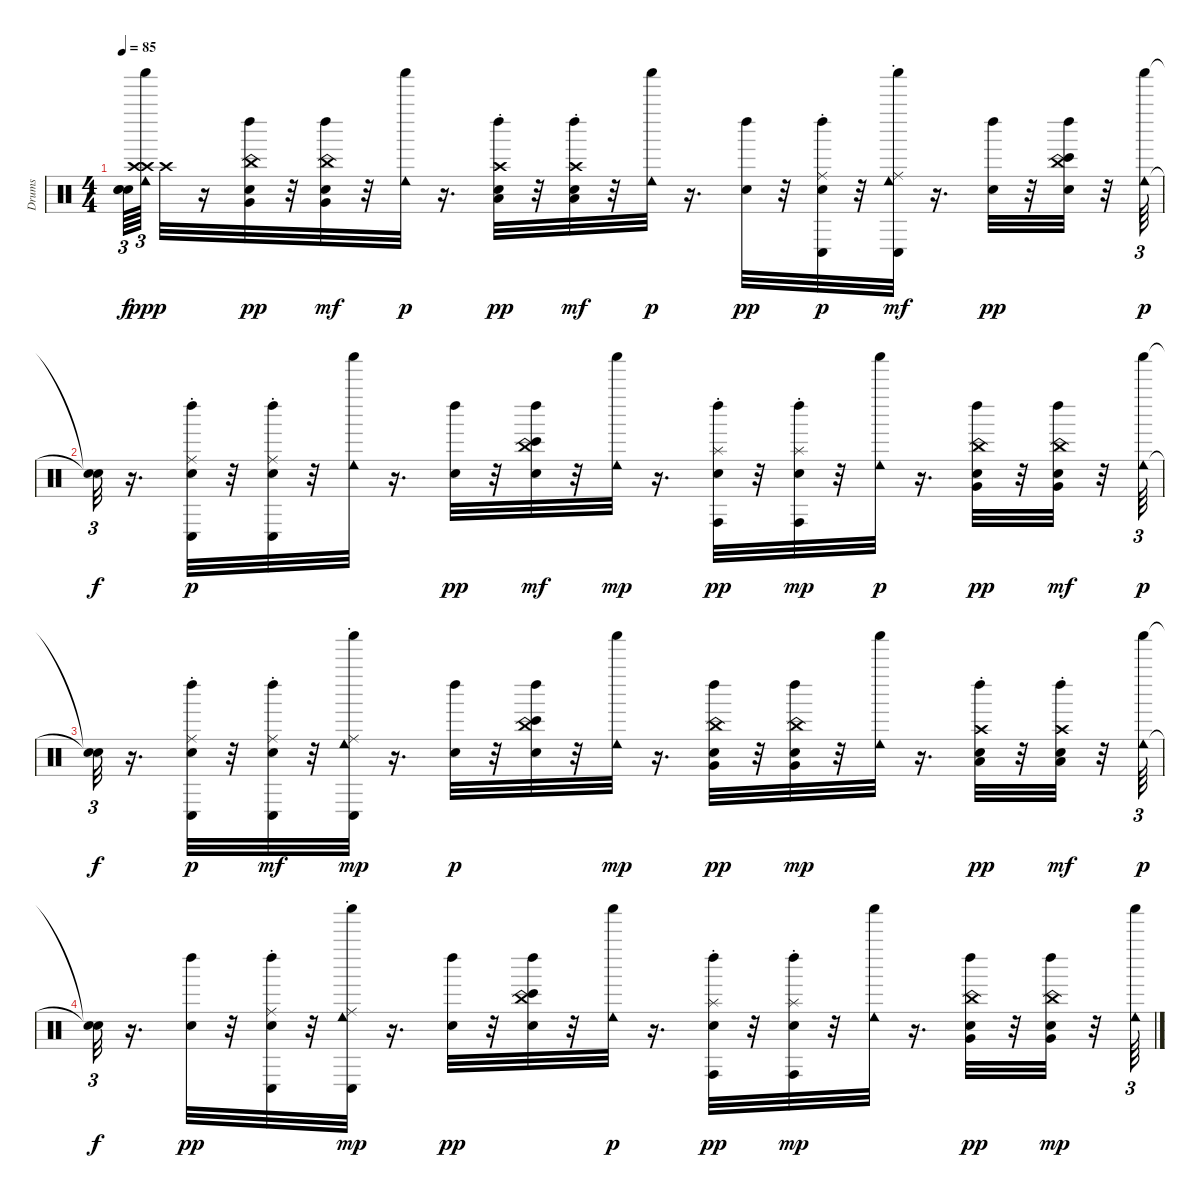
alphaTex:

\track ("Drums" "Drums") {instrument percussion}
\staff {score}
\articulation defaults
\ts (4 4)
\tempo 85
\clef neutral
\ks c
("Snare (hit)"{t} "Snare (hit)"{t} "Snare (hit)"{t}).64{tu (3 2) dy f} ("Shaker (hit)" "Cowbell low (hit)" "Crash high (hit)" "Crash high (hit)").64{tu (3 2) dy ppp} "Crash high (hit)".32 r.16 ("China (choke)" "Very Low Tom (hit)" "Snare (hit)" "Left Maraca (hit)").32{dy pp} r.32 ("Snare (hit)" "Left Maraca (hit)" "Very Low Tom (hit)" "China (choke)").32{dy mf} r.32 ("Cowbell low (hit)" "Shaker (hit)").32{dy p} r.16{d} ("Crash high (choke)" "Low Floor Tom (hit)" "Left Maraca (hit)" "Snare (hit)").32{dy pp} r.32 ("Left Maraca (hit)" "Snare (hit)" "Crash high (choke)" "Low Floor Tom (hit)").32{dy mf} r.32 ("Shaker (hit)" "Cowbell low (hit)").32{dy p} r.16{d} ("Left Maraca (hit)" "Snare (hit)").32{dy pp} r.32 ("Ride (choke)" "Conga low (hit)" "Snare (hit)" "Left Maraca (hit)").32{dy p} r.32 ("Shaker (hit)" "Conga low (hit)" "Cowbell low (hit)" "Ride (choke)").32{dy mf} r.16{d} ("Left Maraca (hit)" "Snare (hit)").32{dy pp} r.32 ("Bongo High (hit)" "Left Maraca (hit)" "China (choke)" "Snare (hit)").32 r.32 ("Shaker (hit)" "Cowbell low (hit)").64{tu (3 2) dy p} |
("Snare (hit)"{t} "Snare (hit)"{t}).32{tu (3 2) dy f} r.16{d} ("Conga low (hit)" "Ride (choke)" "Snare (hit)" "Left Maraca (hit)").32{dy p} r.32 ("Conga low (hit)" "Ride (choke)" "Snare (hit)" "Left Maraca (hit)").32 r.32 ("Shaker (hit)" "Cowbell low (hit)").32 r.16{d} ("Left Maraca (hit)" "Snare (hit)").32{dy pp} r.32 ("Snare (hit)" "Left Maraca (hit)" "China (choke)" "Bongo High (hit)").32{dy mf} r.32 ("Cowbell low (hit)" "Shaker (hit)").32{dy mp} r.16{d} ("Conga high (hit)" "Splash (choke)" "Left Maraca (hit)" "Snare (hit)").32{dy pp} r.32 ("Left Maraca (hit)" "Snare (hit)" "Splash (choke)" "Conga high (hit)").32{dy mp} r.32 ("Shaker (hit)" "Cowbell low (hit)").32{dy p} r.16{d} ("China (choke)" "Very Low Tom (hit)" "Left Maraca (hit)" "Snare (hit)").32{dy pp} r.32 ("Left Maraca (hit)" "Snare (hit)" "Very Low Tom (hit)" "China (choke)").32{dy mf} r.32 ("Shaker (hit)" "Cowbell low (hit)").64{tu (3 2) dy p} |
("Snare (hit)"{t} "Snare (hit)"{t}).32{tu (3 2) dy f} r.16{d} ("Ride (choke)" "Conga low (hit)" "Snare (hit)" "Left Maraca (hit)").32{dy p} r.32 ("Left Maraca (hit)" "Snare (hit)" "Ride (choke)" "Conga low (hit)").32{dy mf} r.32 ("Shaker (hit)" "Conga low (hit)" "Cowbell low (hit)" "Ride (choke)").32{dy mp} r.16{d} ("Left Maraca (hit)" "Snare (hit)").32{dy p} r.32 ("China (choke)" "Bongo High (hit)" "Snare (hit)" "Left Maraca (hit)").32 r.32 ("Cowbell low (hit)" "Shaker (hit)").32{dy mp} r.16{d} ("China (choke)" "Very Low Tom (hit)" "Left Maraca (hit)" "Snare (hit)").32{dy pp} r.32 ("Left Maraca (hit)" "China (choke)" "Snare (hit)" "Very Low Tom (hit)").32{dy mp} r.32 ("Cowbell low (hit)" "Shaker (hit)").32 r.16{d} ("Crash high (choke)" "Low Floor Tom (hit)" "Left Maraca (hit)" "Snare (hit)").32{dy pp} r.32 ("Left Maraca (hit)" "Snare (hit)" "Low Floor Tom (hit)" "Crash high (choke)").32{dy mf} r.32 ("Shaker (hit)" "Cowbell low (hit)").64{tu (3 2) dy p} |
("Snare (hit)"{t} "Snare (hit)"{t}).32{tu (3 2) dy f} r.16{d} ("Left Maraca (hit)" "Snare (hit)").32{dy pp} r.32 ("Conga low (hit)" "Ride (choke)" "Left Maraca (hit)" "Snare (hit)").32 r.32 ("Shaker (hit)" "Conga low (hit)" "Cowbell low (hit)" "Ride (choke)").32{dy mp} r.16{d} ("Left Maraca (hit)" "Snare (hit)").32{dy pp} r.32 ("Bongo High (hit)" "China (choke)" "Left Maraca (hit)" "Snare (hit)").32 r.32 ("Shaker (hit)" "Cowbell low (hit)").32{dy p} r.16{d} ("Conga high (hit)" "Splash (choke)" "Left Maraca (hit)" "Snare (hit)").32{dy pp} r.32 ("Left Maraca (hit)" "Snare (hit)" "Conga high (hit)" "Splash (choke)").32{dy mp} r.32 ("Cowbell low (hit)" "Shaker (hit)").32 r.16{d} ("China (choke)" "Very Low Tom (hit)" "Left Maraca (hit)" "Snare (hit)").32{dy pp} r.32 ("Left Maraca (hit)" "China (choke)" "Snare (hit)" "Very Low Tom (hit)").32{dy mp} r.32 ("Cowbell low (hit)" "Shaker (hit)").64{tu (3 2)}
